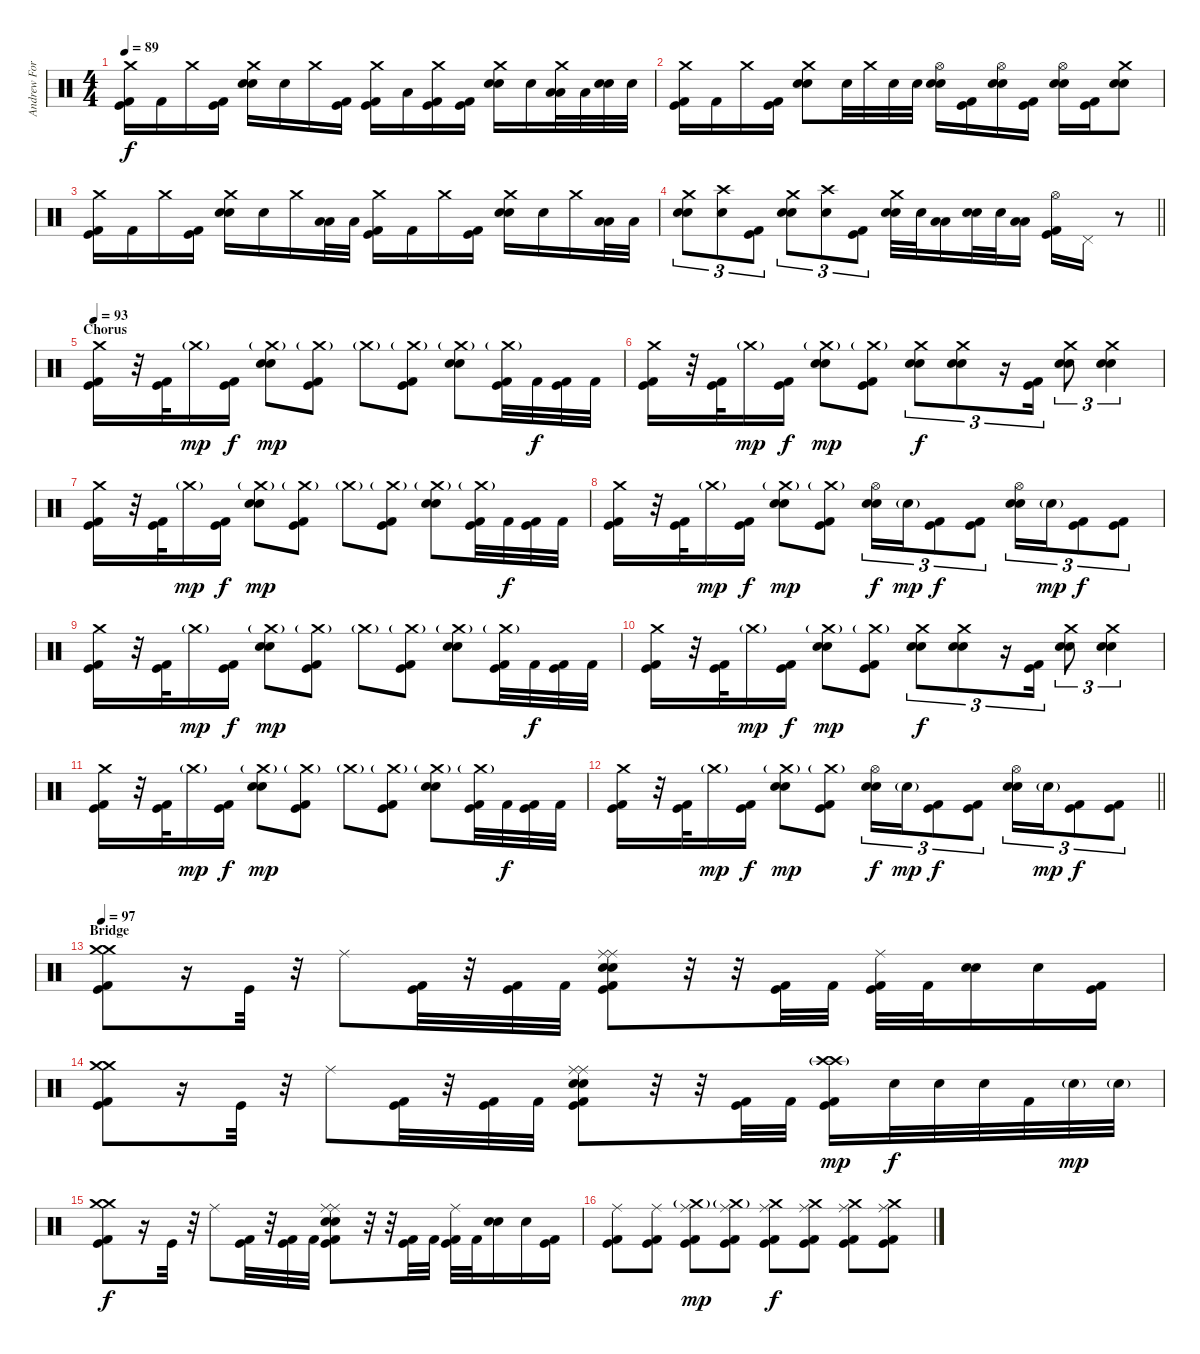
\track ("Andrew Forsman" "Andrew For") {instrument percussion}
\staff {score}
\articulation defaults
\ts (4 4)
\tempo 89
\clef neutral
\ks c
("Crash medium (hit)" "Kick (hit)" "Kick (hit) 2").16{dy f} "Kick (hit) 2".16 "Crash medium (hit)".16 ("Kick (hit)" "Kick (hit) 2").16 ("Crash medium (hit)" "Electric Snare (hit)" "Electric Snare (hit)").16 "Electric Snare (hit)".16 "Crash medium (hit)".16 ("Kick (hit)" "Kick (hit) 2").16 ("Crash medium (hit)" "Kick (hit)" "Kick (hit) 2").16 "Low Tom (hit)".16 ("Crash medium (hit)" "Kick (hit)" "Kick (hit) 2").16 ("Kick (hit)" "Kick (hit) 2").16 ("Crash medium (hit)" "Electric Snare (hit)" "Electric Snare (hit)").16 "Electric Snare (hit)".16 ("Crash medium (hit)" "Low Tom (hit)" "Low Tom (hit)").32 "Low Tom (hit)".32 ("Electric Snare (hit)" "Electric Snare (hit)").32 "Electric Snare (hit)".32 |
("Crash medium (hit)" "Kick (hit)" "Kick (hit) 2").16 "Kick (hit) 2".16 "Crash medium (hit)".16 ("Kick (hit)" "Kick (hit) 2").16 ("Crash medium (hit)" "Electric Snare (hit)" "Electric Snare (hit)").8 "Electric Snare (hit)".32 "Crash medium (hit)".32 "Electric Snare (hit)".32 "Electric Snare (hit)".32 ("Hi-Hat (open)" "Electric Snare (hit)" "Electric Snare (hit)").16 ("Kick (hit)" "Kick (hit) 2").16 ("Hi-Hat (open)" "Electric Snare (hit)" "Electric Snare (hit)").16 ("Kick (hit)" "Kick (hit) 2").16 ("Hi-Hat (open)" "Electric Snare (hit)" "Electric Snare (hit)").16 ("Kick (hit)" "Kick (hit) 2").16 ("Crash medium (hit)" "Electric Snare (hit)" "Electric Snare (hit)").8 |
("Crash medium (hit)" "Kick (hit)" "Kick (hit) 2").16 "Kick (hit) 2".16 "Crash medium (hit)".16 ("Kick (hit)" "Kick (hit) 2").16 ("Crash medium (hit)" "Electric Snare (hit)" "Electric Snare (hit)").16 "Electric Snare (hit)".16 "Crash medium (hit)".16 ("Low Tom (hit)" "Low Tom (hit)").32 "Low Tom (hit)".32 ("Crash medium (hit)" "Kick (hit)" "Kick (hit) 2").16 "Kick (hit) 2".16 "Crash medium (hit)".16 ("Kick (hit)" "Kick (hit) 2").16 ("Crash medium (hit)" "Electric Snare (hit)" "Electric Snare (hit)").16 "Electric Snare (hit)".16 "Crash medium (hit)".16 ("Low Tom (hit)" "Low Tom (hit)").32 "Low Tom (hit)".32 |
\barLineRight lightlight
("Crash medium (hit)" "Electric Snare (hit)" "Electric Snare (hit)").8{tu (3 2)} ("Crash high (hit)" "Electric Snare (hit)").8{tu (3 2)} ("Kick (hit)" "Kick (hit) 2").8{tu (3 2)} ("Crash medium (hit)" "Electric Snare (hit)" "Electric Snare (hit)").8{tu (3 2)} ("Crash high (hit)" "Electric Snare (hit)").8{tu (3 2)} ("Kick (hit)" "Kick (hit) 2").8{tu (3 2)} ("Crash medium (hit)" "Electric Snare (hit)" "Electric Snare (hit)").32 "Electric Snare (hit)".32 ("Low Tom (hit)" "Low Tom (hit)").16 ("Electric Snare (hit)" "Electric Snare (hit)").32 "Electric Snare (hit)".32 ("Low Tom (hit)" "Low Tom (hit)").16 ("Hi-Hat (open)" "Kick (hit)" "Kick (hit) 2").16 "Pedal Hi-Hat (hit)".16 r.8 |
\section ("" "Chorus")
\tempo 93
("Crash medium (hit)" "Kick (hit)" "Kick (hit) 2").16 r.32 ("Kick (hit)" "Kick (hit) 2").32 "Crash medium (hit)"{g}.16{dy mp} ("Kick (hit)" "Kick (hit) 2").16{dy f} ("Crash medium (hit)"{g} "Electric Snare (hit)" "Electric Snare (hit)").8{dy mp} ("Crash medium (hit)"{g} "Kick (hit)" "Kick (hit) 2").8 "Crash medium (hit)"{g}.8 ("Crash medium (hit)"{g} "Kick (hit)" "Kick (hit) 2").8 ("Crash medium (hit)"{g} "Electric Snare (hit)" "Electric Snare (hit)").8 ("Crash medium (hit)"{g} "Kick (hit)" "Kick (hit) 2").32 "Kick (hit) 2".32{dy f} ("Kick (hit)" "Kick (hit) 2").32 "Kick (hit) 2".32 |
("Crash medium (hit)" "Kick (hit)" "Kick (hit) 2").16 r.32 ("Kick (hit)" "Kick (hit) 2").32 "Crash medium (hit)"{g}.16{dy mp} ("Kick (hit)" "Kick (hit) 2").16{dy f} ("Crash medium (hit)"{g} "Electric Snare (hit)" "Electric Snare (hit)").8{dy mp} ("Crash medium (hit)"{g} "Kick (hit)" "Kick (hit) 2").8 ("Crash medium (hit)" "Electric Snare (hit)" "Electric Snare (hit)").8{tu (3 2) dy f} ("Crash medium (hit)" "Electric Snare (hit)" "Electric Snare (hit)").8{tu (3 2)} r.16{tu (3 2)} ("Kick (hit)" "Kick (hit) 2").16{tu (3 2)} ("Crash medium (hit)" "Electric Snare (hit)" "Electric Snare (hit)").8{tu (3 2)} ("Crash medium (hit)" "Electric Snare (hit)" "Electric Snare (hit)").4{tu (3 2)} |
("Crash medium (hit)" "Kick (hit)" "Kick (hit) 2").16 r.32 ("Kick (hit)" "Kick (hit) 2").32 "Crash medium (hit)"{g}.16{dy mp} ("Kick (hit)" "Kick (hit) 2").16{dy f} ("Crash medium (hit)"{g} "Electric Snare (hit)" "Electric Snare (hit)").8{dy mp} ("Crash medium (hit)"{g} "Kick (hit)" "Kick (hit) 2").8 "Crash medium (hit)"{g}.8 ("Crash medium (hit)"{g} "Kick (hit)" "Kick (hit) 2").8 ("Crash medium (hit)"{g} "Electric Snare (hit)" "Electric Snare (hit)").8 ("Crash medium (hit)"{g} "Kick (hit)" "Kick (hit) 2").32 "Kick (hit) 2".32{dy f} ("Kick (hit)" "Kick (hit) 2").32 "Kick (hit) 2".32 |
("Crash medium (hit)" "Kick (hit)" "Kick (hit) 2").16 r.32 ("Kick (hit)" "Kick (hit) 2").32 "Crash medium (hit)"{g}.16{dy mp} ("Kick (hit)" "Kick (hit) 2").16{dy f} ("Crash medium (hit)"{g} "Electric Snare (hit)" "Electric Snare (hit)").8{dy mp} ("Crash medium (hit)"{g} "Kick (hit)" "Kick (hit) 2").8 ("Hi-Hat (open)" "Electric Snare (hit)" "Electric Snare (hit)").16{tu (3 2) dy f} "Electric Snare (hit)"{g}.16{tu (3 2) dy mp} ("Kick (hit)" "Kick (hit) 2").8{tu (3 2) dy f} ("Kick (hit)" "Kick (hit) 2").8{tu (3 2)} ("Hi-Hat (open)" "Electric Snare (hit)" "Electric Snare (hit)").16{tu (3 2)} "Electric Snare (hit)"{g}.16{tu (3 2) dy mp} ("Kick (hit)" "Kick (hit) 2").8{tu (3 2) dy f} ("Kick (hit)" "Kick (hit) 2").8{tu (3 2)} |
("Crash medium (hit)" "Kick (hit)" "Kick (hit) 2").16 r.32 ("Kick (hit)" "Kick (hit) 2").32 "Crash medium (hit)"{g}.16{dy mp} ("Kick (hit)" "Kick (hit) 2").16{dy f} ("Crash medium (hit)"{g} "Electric Snare (hit)" "Electric Snare (hit)").8{dy mp} ("Crash medium (hit)"{g} "Kick (hit)" "Kick (hit) 2").8 "Crash medium (hit)"{g}.8 ("Crash medium (hit)"{g} "Kick (hit)" "Kick (hit) 2").8 ("Crash medium (hit)"{g} "Electric Snare (hit)" "Electric Snare (hit)").8 ("Crash medium (hit)"{g} "Kick (hit)" "Kick (hit) 2").32 "Kick (hit) 2".32{dy f} ("Kick (hit)" "Kick (hit) 2").32 "Kick (hit) 2".32 |
("Crash medium (hit)" "Kick (hit)" "Kick (hit) 2").16 r.32 ("Kick (hit)" "Kick (hit) 2").32 "Crash medium (hit)"{g}.16{dy mp} ("Kick (hit)" "Kick (hit) 2").16{dy f} ("Crash medium (hit)"{g} "Electric Snare (hit)" "Electric Snare (hit)").8{dy mp} ("Crash medium (hit)"{g} "Kick (hit)" "Kick (hit) 2").8 ("Crash medium (hit)" "Electric Snare (hit)" "Electric Snare (hit)").8{tu (3 2) dy f} ("Crash medium (hit)" "Electric Snare (hit)" "Electric Snare (hit)").8{tu (3 2)} r.16{tu (3 2)} ("Kick (hit)" "Kick (hit) 2").16{tu (3 2)} ("Crash medium (hit)" "Electric Snare (hit)" "Electric Snare (hit)").8{tu (3 2)} ("Crash medium (hit)" "Electric Snare (hit)" "Electric Snare (hit)").4{tu (3 2)} |
("Crash medium (hit)" "Kick (hit)" "Kick (hit) 2").16 r.32 ("Kick (hit)" "Kick (hit) 2").32 "Crash medium (hit)"{g}.16{dy mp} ("Kick (hit)" "Kick (hit) 2").16{dy f} ("Crash medium (hit)"{g} "Electric Snare (hit)" "Electric Snare (hit)").8{dy mp} ("Crash medium (hit)"{g} "Kick (hit)" "Kick (hit) 2").8 "Crash medium (hit)"{g}.8 ("Crash medium (hit)"{g} "Kick (hit)" "Kick (hit) 2").8 ("Crash medium (hit)"{g} "Electric Snare (hit)" "Electric Snare (hit)").8 ("Crash medium (hit)"{g} "Kick (hit)" "Kick (hit) 2").32 "Kick (hit) 2".32{dy f} ("Kick (hit)" "Kick (hit) 2").32 "Kick (hit) 2".32 |
\barLineRight lightlight
("Crash medium (hit)" "Kick (hit)" "Kick (hit) 2").16 r.32 ("Kick (hit)" "Kick (hit) 2").32 "Crash medium (hit)"{g}.16{dy mp} ("Kick (hit)" "Kick (hit) 2").16{dy f} ("Crash medium (hit)"{g} "Electric Snare (hit)" "Electric Snare (hit)").8{dy mp} ("Crash medium (hit)"{g} "Kick (hit)" "Kick (hit) 2").8 ("Hi-Hat (open)" "Electric Snare (hit)" "Electric Snare (hit)").16{tu (3 2) dy f} "Electric Snare (hit)"{g}.16{tu (3 2) dy mp} ("Kick (hit)" "Kick (hit) 2").8{tu (3 2) dy f} ("Kick (hit)" "Kick (hit) 2").8{tu (3 2)} ("Hi-Hat (open)" "Electric Snare (hit)" "Electric Snare (hit)").16{tu (3 2)} "Electric Snare (hit)"{g}.16{tu (3 2) dy mp} ("Kick (hit)" "Kick (hit) 2").8{tu (3 2) dy f} ("Kick (hit)" "Kick (hit) 2").8{tu (3 2)} |
\section ("" "Bridge")
\tempo 97
("Crash medium (hit)" "Crash medium (hit)" "Kick (hit)" "Kick (hit) 2").8 r.16 "Kick (hit)".32 r.32 "Ride (middle)".8 ("Kick (hit)" "Kick (hit) 2").32 r.32 ("Kick (hit)" "Kick (hit) 2").32 "Kick (hit) 2".32 ("Ride (middle)" "Ride (middle)" "Electric Snare (hit)" "Electric Snare (hit)" "Kick (hit)" "Kick (hit) 2").8 r.32 r.32 ("Kick (hit)" "Kick (hit) 2").32 "Kick (hit) 2".32 ("Ride (middle)" "Kick (hit)" "Kick (hit) 2").32 "Kick (hit) 2".32 ("Electric Snare (hit)" "Electric Snare (hit)").16 "Electric Snare (hit)".16 ("Kick (hit)" "Kick (hit) 2").16 |
("Crash medium (hit)" "Crash medium (hit)" "Kick (hit)" "Kick (hit) 2").8 r.16 "Kick (hit)".32 r.32 "Ride (middle)".8 ("Kick (hit)" "Kick (hit) 2").32 r.32 ("Kick (hit)" "Kick (hit) 2").32 "Kick (hit) 2".32 ("Ride (middle)" "Ride (middle)" "Electric Snare (hit)" "Electric Snare (hit)" "Kick (hit)" "Kick (hit) 2").8 r.32 r.32 ("Kick (hit)" "Kick (hit) 2").32 "Kick (hit) 2".32 ("Crash high (hit)"{g} "Crash high (hit)"{g} "Kick (hit)" "Kick (hit) 2").16{dy mp} "Electric Snare (hit)".32{dy f} "Electric Snare (hit)".32 "Electric Snare (hit)".32 "Kick (hit) 2".32 "Electric Snare (hit)"{g}.32{dy mp} "Electric Snare (hit)"{g}.32 |
("Crash medium (hit)" "Crash medium (hit)" "Kick (hit)" "Kick (hit) 2").8{dy f} r.16 "Kick (hit)".32 r.32 "Ride (middle)".8 ("Kick (hit)" "Kick (hit) 2").32 r.32 ("Kick (hit)" "Kick (hit) 2").32 "Kick (hit) 2".32 ("Ride (middle)" "Ride (middle)" "Electric Snare (hit)" "Electric Snare (hit)" "Kick (hit)" "Kick (hit) 2").8 r.32 r.32 ("Kick (hit)" "Kick (hit) 2").32 "Kick (hit) 2".32 ("Ride (middle)" "Kick (hit)" "Kick (hit) 2").32 "Kick (hit) 2".32 ("Electric Snare (hit)" "Electric Snare (hit)").16 "Electric Snare (hit)".16 ("Kick (hit)" "Kick (hit) 2").16 |
("Ride (middle)" "Kick (hit)" "Kick (hit) 2").8 ("Ride (middle)" "Kick (hit)" "Kick (hit) 2").8 ("Crash medium (hit)"{g} "Ride (middle)" "Kick (hit)" "Kick (hit) 2").8{dy mp} ("Crash medium (hit)"{g} "Ride (middle)" "Kick (hit)" "Kick (hit) 2").8 ("Crash medium (hit)" "Ride (middle)" "Kick (hit)" "Kick (hit) 2").8{dy f} ("Crash medium (hit)" "Ride (middle)" "Kick (hit)" "Kick (hit) 2").8 ("Crash medium (hit)" "Ride (middle)" "Kick (hit)" "Kick (hit) 2").8 ("Crash medium (hit)" "Ride (middle)" "Kick (hit)" "Kick (hit) 2").8
